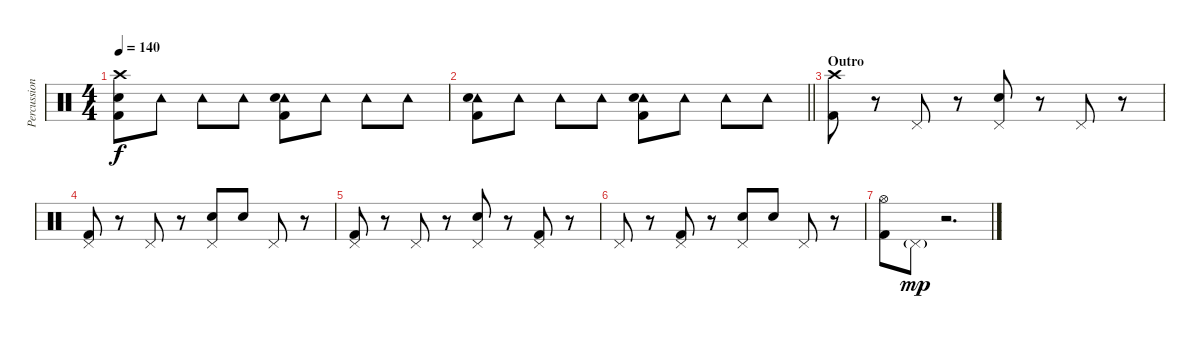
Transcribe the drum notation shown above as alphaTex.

\track ("Percussion" "Percussion") {instrument percussion}
\staff {score}
\articulation defaults
\ts (4 4)
\tempo 140
\clef neutral
\ks c
("Crash high (hit)" "Snare (hit) 2" "Kick (hit) 2").8{dy f} "Tambourine (hit)".8 "Tambourine (hit)".8 "Tambourine (hit)".8 ("Tambourine (hit)" "Snare (hit) 2" "Kick (hit) 2").8 "Tambourine (hit)".8 "Tambourine (hit)".8 "Tambourine (hit)".8 |
\barLineRight lightlight
("Tambourine (hit)" "Snare (hit) 2" "Kick (hit) 2").8 "Tambourine (hit)".8 "Tambourine (hit)".8 "Tambourine (hit)".8 ("Tambourine (hit)" "Snare (hit) 2" "Kick (hit) 2").8 "Tambourine (hit)".8 "Tambourine (hit)".8 "Tambourine (hit)".8 |
\section ("" "Outro")
("Crash high (hit)" "Kick (hit) 2").8 r.8 "Pedal Hi-Hat (hit)".8 r.8 ("Pedal Hi-Hat (hit)" "Snare (hit) 2").8 r.8 "Pedal Hi-Hat (hit)".8 r.8 |
("Pedal Hi-Hat (hit)" "Kick (hit) 2").8 r.8 "Pedal Hi-Hat (hit)".8 r.8 ("Pedal Hi-Hat (hit)" "Snare (hit) 2").8 "Snare (hit) 2".8 "Pedal Hi-Hat (hit)".8 r.8 |
("Pedal Hi-Hat (hit)" "Kick (hit) 2").8 r.8 "Pedal Hi-Hat (hit)".8 r.8 ("Pedal Hi-Hat (hit)" "Snare (hit) 2").8 r.8 ("Pedal Hi-Hat (hit)" "Kick (hit) 2").8 r.8 |
"Pedal Hi-Hat (hit)".8 r.8 ("Pedal Hi-Hat (hit)" "Kick (hit) 2").8 r.8 ("Pedal Hi-Hat (hit)" "Snare (hit) 2").8 "Snare (hit) 2".8 "Pedal Hi-Hat (hit)".8 r.8 |
("Hi-Hat (open)" "Kick (hit) 2").8 "Pedal Hi-Hat (hit)"{g}.8{dy mp} r.2{d}
